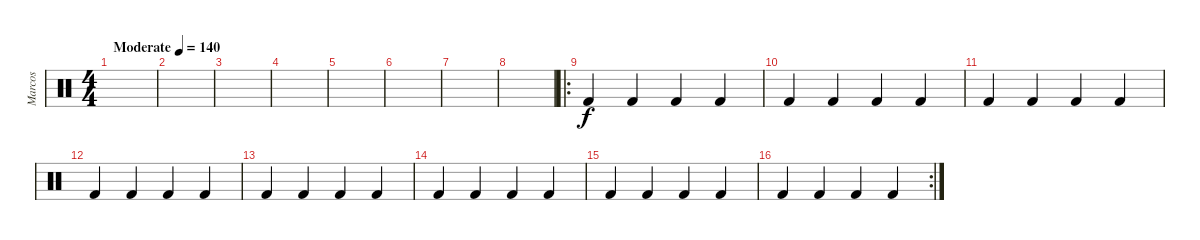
\track ("Marcos" "Marcos") {instrument percussion}
\staff {score}
\articulation defaults
\ts (4 4)
\tempo (140 "Moderate")
\clef neutral
\ks c
|
|
|
|
|
|
|
|
\ro "Kick (hit) 2".4 "Kick (hit) 2".4 "Kick (hit) 2".4 "Kick (hit) 2".4
|
"Kick (hit) 2".4 "Kick (hit) 2".4 "Kick (hit) 2".4 "Kick (hit) 2".4 |
"Kick (hit) 2".4 "Kick (hit) 2".4 "Kick (hit) 2".4 "Kick (hit) 2".4 |
"Kick (hit) 2".4 "Kick (hit) 2".4 "Kick (hit) 2".4 "Kick (hit) 2".4 |
"Kick (hit) 2".4 "Kick (hit) 2".4 "Kick (hit) 2".4 "Kick (hit) 2".4 |
"Kick (hit) 2".4 "Kick (hit) 2".4 "Kick (hit) 2".4 "Kick (hit) 2".4 |
"Kick (hit) 2".4 "Kick (hit) 2".4 "Kick (hit) 2".4 "Kick (hit) 2".4 |
\rc 2 "Kick (hit) 2".4 "Kick (hit) 2".4 "Kick (hit) 2".4 "Kick (hit) 2".4
